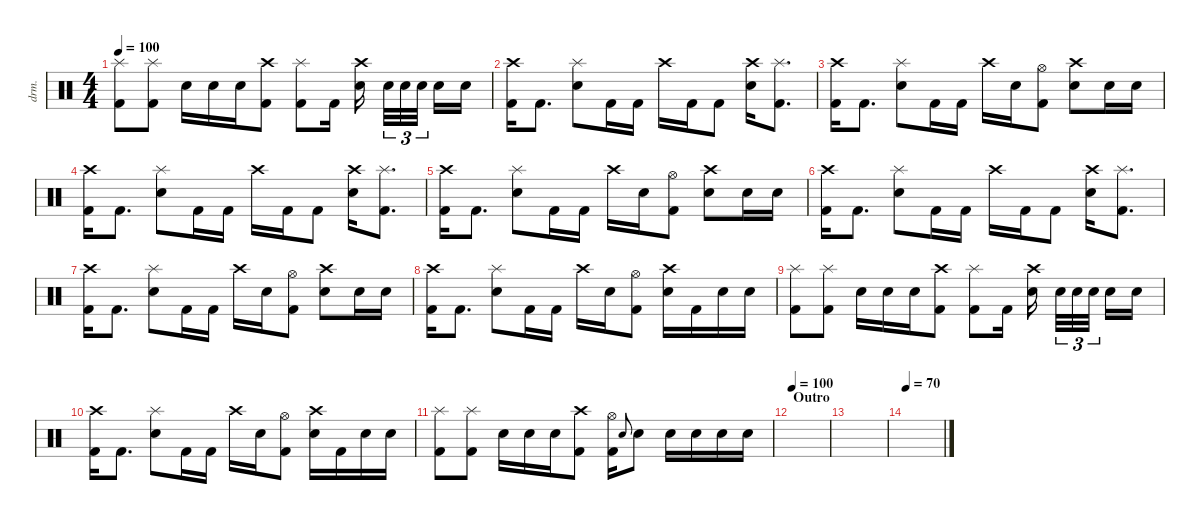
\defaultSystemsLayout 4
\hideDynamics
\bracketExtendMode nobrackets
\otherSystemsTrackNameOrientation horizontal
\track ("Jorge" "drm.") {instrument percussion}
\staff {score}
\articulation defaults
\ts (4 4)
\tempo 100
\clef neutral
\ks c
("Kick (hit) 2" "Splash (hit)").8{dy mf beam Down} ("Kick (hit) 2" "Splash (hit)").8{beam Down} "Snare (hit) 2".16{beam Down} "Snare (hit) 2".16{beam Down} "Snare (hit) 2".16{beam Down} ("Kick (hit) 2" "Crash high (hit)").8{beam Down} ("Kick (hit) 2" "Splash (hit)").8{beam Down} "Kick (hit) 2".16{beam Down} ("Snare (hit) 2" "Crash high (hit)").16{beam Down} "Snare (hit) 2".32{tu (3 2) beam Down} "Snare (hit) 2".32{tu (3 2) beam Down} "Snare (hit) 2".32{tu (3 2) beam Down} "Snare (hit) 2".16{beam Down} "Snare (hit) 2".16{beam Down} |
("Kick (hit) 2" "Crash high (hit)").16{beam Down} "Kick (hit) 2".8{d beam Down} ("Snare (hit) 2" "Splash (hit)").8{beam Down} "Kick (hit) 2".16{beam Down} "Kick (hit) 2".16{beam Down} "Crash high (hit)".16{beam Down} "Kick (hit) 2".16{beam Down} "Kick (hit) 2".8{beam Down} ("Snare (hit) 2" "Crash high (hit)").16{beam Down} ("Kick (hit) 2" "Splash (hit)").8{d beam Down} |
("Kick (hit) 2" "Crash high (hit)").16{beam Down} "Kick (hit) 2".8{d beam Down} ("Snare (hit) 2" "Splash (hit)").8{beam Down} "Kick (hit) 2".16{beam Down} "Kick (hit) 2".16{beam Down} "Crash high (hit)".16{beam Down} "Snare (hit) 2".16{beam Down} ("Kick (hit) 2" "Hi-Hat (open)").8{beam Down} ("Snare (hit) 2" "Crash high (hit)").8{beam Down} "Snare (hit) 2".16{beam Down} "Snare (hit) 2".16{beam Down} |
("Kick (hit) 2" "Crash high (hit)").16{beam Down} "Kick (hit) 2".8{d beam Down} ("Snare (hit) 2" "Splash (hit)").8{beam Down} "Kick (hit) 2".16{beam Down} "Kick (hit) 2".16{beam Down} "Crash high (hit)".16{beam Down} "Kick (hit) 2".16{beam Down} "Kick (hit) 2".8{beam Down} ("Snare (hit) 2" "Crash high (hit)").16{beam Down} ("Kick (hit) 2" "Splash (hit)").8{d beam Down} |
("Kick (hit) 2" "Crash high (hit)").16{beam Down} "Kick (hit) 2".8{d beam Down} ("Snare (hit) 2" "Splash (hit)").8{beam Down} "Kick (hit) 2".16{beam Down} "Kick (hit) 2".16{beam Down} "Crash high (hit)".16{beam Down} "Snare (hit) 2".16{beam Down} ("Kick (hit) 2" "Hi-Hat (open)").8{beam Down} ("Snare (hit) 2" "Crash high (hit)").8{beam Down} "Snare (hit) 2".16{beam Down} "Snare (hit) 2".16{beam Down} |
("Kick (hit) 2" "Crash high (hit)").16{beam Down} "Kick (hit) 2".8{d beam Down} ("Snare (hit) 2" "Splash (hit)").8{beam Down} "Kick (hit) 2".16{beam Down} "Kick (hit) 2".16{beam Down} "Crash high (hit)".16{beam Down} "Kick (hit) 2".16{beam Down} "Kick (hit) 2".8{beam Down} ("Snare (hit) 2" "Crash high (hit)").16{beam Down} ("Kick (hit) 2" "Splash (hit)").8{d beam Down} |
("Kick (hit) 2" "Crash high (hit)").16{beam Down} "Kick (hit) 2".8{d beam Down} ("Snare (hit) 2" "Splash (hit)").8{beam Down} "Kick (hit) 2".16{beam Down} "Kick (hit) 2".16{beam Down} "Crash high (hit)".16{beam Down} "Snare (hit) 2".16{beam Down} ("Kick (hit) 2" "Hi-Hat (open)").8{beam Down} ("Snare (hit) 2" "Crash high (hit)").8{beam Down} "Snare (hit) 2".16{beam Down} "Snare (hit) 2".16{beam Down} |
("Kick (hit) 2" "Crash high (hit)").16{beam Down} "Kick (hit) 2".8{d beam Down} ("Snare (hit) 2" "Splash (hit)").8{beam Down} "Kick (hit) 2".16{beam Down} "Kick (hit) 2".16{beam Down} "Crash high (hit)".16{beam Down} "Snare (hit) 2".16{beam Down} ("Kick (hit) 2" "Hi-Hat (open)").8{beam Down} ("Snare (hit) 2" "Crash high (hit)").16{beam Down} "Kick (hit) 2".16{beam Down} "Snare (hit) 2".16{beam Down} "Snare (hit) 2".16{beam Down} |
("Kick (hit) 2" "Splash (hit)").8{beam Down} ("Kick (hit) 2" "Splash (hit)").8{beam Down} "Snare (hit) 2".16{beam Down} "Snare (hit) 2".16{beam Down} "Snare (hit) 2".16{beam Down} ("Kick (hit) 2" "Crash high (hit)").8{beam Down} ("Kick (hit) 2" "Splash (hit)").8{beam Down} "Kick (hit) 2".16{beam Down} ("Snare (hit) 2" "Crash high (hit)").16{beam Down} "Snare (hit) 2".32{tu (3 2) beam Down} "Snare (hit) 2".32{tu (3 2) beam Down} "Snare (hit) 2".32{tu (3 2) beam Down} "Snare (hit) 2".16{beam Down} "Snare (hit) 2".16{beam Down} |
("Kick (hit) 2" "Crash high (hit)").16{beam Down} "Kick (hit) 2".8{d beam Down} ("Snare (hit) 2" "Splash (hit)").8{beam Down} "Kick (hit) 2".16{beam Down} "Kick (hit) 2".16{beam Down} "Crash high (hit)".16{beam Down} "Snare (hit) 2".16{beam Down} ("Kick (hit) 2" "Hi-Hat (open)").8{beam Down} ("Snare (hit) 2" "Crash high (hit)").16{beam Down} "Kick (hit) 2".16{beam Down} "Snare (hit) 2".16{beam Down} "Snare (hit) 2".16{beam Down} |
("Kick (hit) 2" "Splash (hit)").8{beam Down} ("Kick (hit) 2" "Splash (hit)").8{beam Down} "Snare (hit) 2".16{beam Down} "Snare (hit) 2".16{beam Down} "Snare (hit) 2".16{beam Down} ("Kick (hit) 2" "Crash high (hit)").8{beam Down} ("Kick (hit) 2" "Hi-Hat (open)").16{beam Down} "Snare (hit) 2".8{gr onbeat beam Up} "Snare (hit) 2".8{beam Down} "Snare (hit) 2".16{beam Down} "Snare (hit) 2".16{beam Down} "Snare (hit) 2".16{beam Down} "Snare (hit) 2".16{beam Down} |
\section ("" "Outro")
\tempo 100
|
|
\tempo 70
